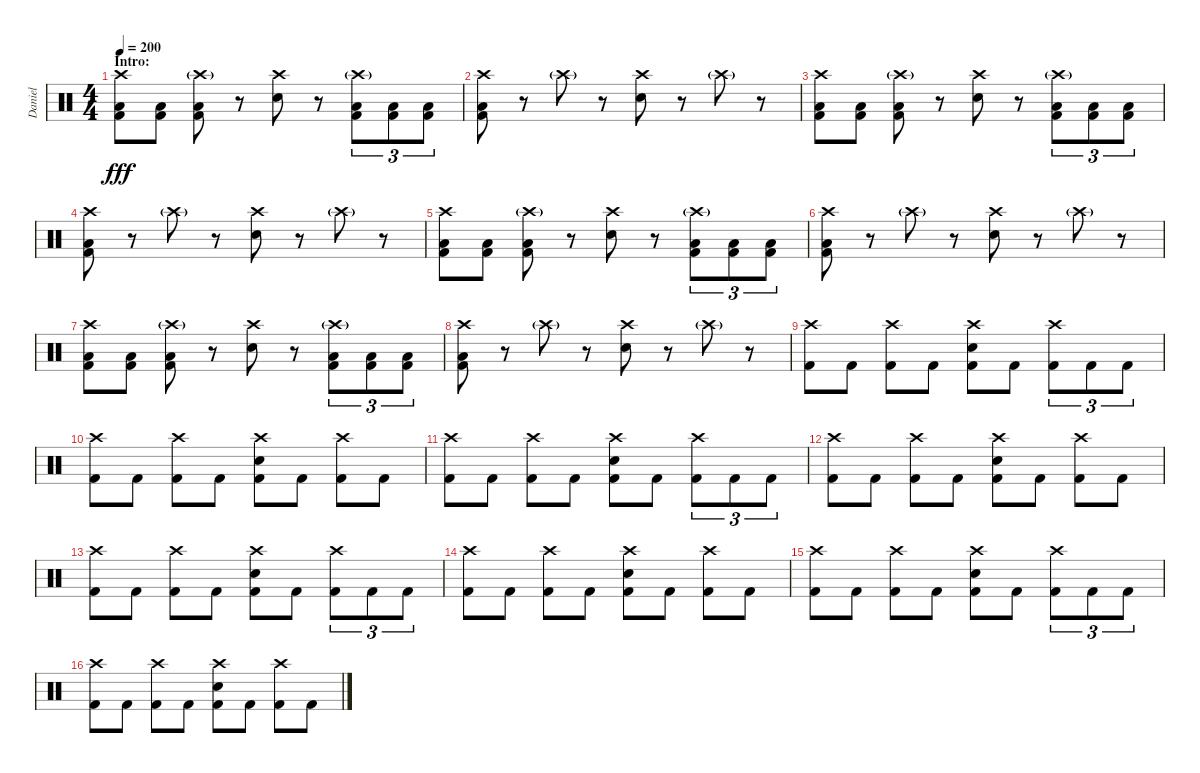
\track ("Daniel" "Daniel") {instrument percussion}
\staff {score}
\articulation defaults
\ts (4 4)
\section ("" "Intro:")
\tempo 200
\clef neutral
\ks c
("Crash high (hit)" "Low Floor Tom (hit)" "Kick (hit) 2").8{dy fff} ("Low Floor Tom (hit)" "Kick (hit) 2").8 ("Crash high (hit)"{g} "Low Floor Tom (hit)" "Kick (hit) 2").8 r.8 ("Crash high (hit)" "Electric Snare (hit)").8 r.8 ("Crash high (hit)"{g} "Low Floor Tom (hit)" "Kick (hit) 2").8{tu (3 2)} ("Low Floor Tom (hit)" "Kick (hit) 2").8{tu (3 2)} ("Low Floor Tom (hit)" "Kick (hit) 2").8{tu (3 2)} |
("Crash high (hit)" "Low Floor Tom (hit)" "Kick (hit) 2").8 r.8 "Crash high (hit)"{g}.8 r.8 ("Crash high (hit)" "Electric Snare (hit)").8 r.8 "Crash high (hit)"{g}.8 r.8 |
("Crash high (hit)" "Low Floor Tom (hit)" "Kick (hit) 2").8 ("Low Floor Tom (hit)" "Kick (hit) 2").8 ("Crash high (hit)"{g} "Low Floor Tom (hit)" "Kick (hit) 2").8 r.8 ("Crash high (hit)" "Electric Snare (hit)").8 r.8 ("Crash high (hit)"{g} "Low Floor Tom (hit)" "Kick (hit) 2").8{tu (3 2)} ("Low Floor Tom (hit)" "Kick (hit) 2").8{tu (3 2)} ("Low Floor Tom (hit)" "Kick (hit) 2").8{tu (3 2)} |
("Crash high (hit)" "Low Floor Tom (hit)" "Kick (hit) 2").8 r.8 "Crash high (hit)"{g}.8 r.8 ("Crash high (hit)" "Electric Snare (hit)").8 r.8 "Crash high (hit)"{g}.8 r.8 |
("Crash high (hit)" "Low Floor Tom (hit)" "Kick (hit) 2").8 ("Low Floor Tom (hit)" "Kick (hit) 2").8 ("Crash high (hit)"{g} "Low Floor Tom (hit)" "Kick (hit) 2").8 r.8 ("Crash high (hit)" "Electric Snare (hit)").8 r.8 ("Crash high (hit)"{g} "Low Floor Tom (hit)" "Kick (hit) 2").8{tu (3 2)} ("Low Floor Tom (hit)" "Kick (hit) 2").8{tu (3 2)} ("Low Floor Tom (hit)" "Kick (hit) 2").8{tu (3 2)} |
("Crash high (hit)" "Low Floor Tom (hit)" "Kick (hit) 2").8 r.8 "Crash high (hit)"{g}.8 r.8 ("Crash high (hit)" "Electric Snare (hit)").8 r.8 "Crash high (hit)"{g}.8 r.8 |
("Crash high (hit)" "Low Floor Tom (hit)" "Kick (hit) 2").8 ("Low Floor Tom (hit)" "Kick (hit) 2").8 ("Crash high (hit)"{g} "Low Floor Tom (hit)" "Kick (hit) 2").8 r.8 ("Crash high (hit)" "Electric Snare (hit)").8 r.8 ("Crash high (hit)"{g} "Low Floor Tom (hit)" "Kick (hit) 2").8{tu (3 2)} ("Low Floor Tom (hit)" "Kick (hit) 2").8{tu (3 2)} ("Low Floor Tom (hit)" "Kick (hit) 2").8{tu (3 2)} |
("Crash high (hit)" "Low Floor Tom (hit)" "Kick (hit) 2").8 r.8 "Crash high (hit)"{g}.8 r.8 ("Crash high (hit)" "Electric Snare (hit)").8 r.8 "Crash high (hit)"{g}.8 r.8 |
("Crash high (hit)" "Kick (hit) 2").8 "Kick (hit) 2".8 ("Crash high (hit)" "Kick (hit) 2").8 "Kick (hit) 2".8 ("Crash high (hit)" "Electric Snare (hit)" "Kick (hit) 2").8 "Kick (hit) 2".8 ("Crash high (hit)" "Kick (hit) 2").8{tu (3 2)} "Kick (hit) 2".8{tu (3 2)} "Kick (hit) 2".8{tu (3 2)} |
("Crash high (hit)" "Kick (hit) 2").8 "Kick (hit) 2".8 ("Crash high (hit)" "Kick (hit) 2").8 "Kick (hit) 2".8 ("Crash high (hit)" "Electric Snare (hit)" "Kick (hit) 2").8 "Kick (hit) 2".8 ("Crash high (hit)" "Kick (hit) 2").8 "Kick (hit) 2".8 |
("Crash high (hit)" "Kick (hit) 2").8 "Kick (hit) 2".8 ("Crash high (hit)" "Kick (hit) 2").8 "Kick (hit) 2".8 ("Crash high (hit)" "Electric Snare (hit)" "Kick (hit) 2").8 "Kick (hit) 2".8 ("Crash high (hit)" "Kick (hit) 2").8{tu (3 2)} "Kick (hit) 2".8{tu (3 2)} "Kick (hit) 2".8{tu (3 2)} |
("Crash high (hit)" "Kick (hit) 2").8 "Kick (hit) 2".8 ("Crash high (hit)" "Kick (hit) 2").8 "Kick (hit) 2".8 ("Crash high (hit)" "Electric Snare (hit)" "Kick (hit) 2").8 "Kick (hit) 2".8 ("Crash high (hit)" "Kick (hit) 2").8 "Kick (hit) 2".8 |
("Crash high (hit)" "Kick (hit) 2").8 "Kick (hit) 2".8 ("Crash high (hit)" "Kick (hit) 2").8 "Kick (hit) 2".8 ("Crash high (hit)" "Electric Snare (hit)" "Kick (hit) 2").8 "Kick (hit) 2".8 ("Crash high (hit)" "Kick (hit) 2").8{tu (3 2)} "Kick (hit) 2".8{tu (3 2)} "Kick (hit) 2".8{tu (3 2)} |
("Crash high (hit)" "Kick (hit) 2").8 "Kick (hit) 2".8 ("Crash high (hit)" "Kick (hit) 2").8 "Kick (hit) 2".8 ("Crash high (hit)" "Electric Snare (hit)" "Kick (hit) 2").8 "Kick (hit) 2".8 ("Crash high (hit)" "Kick (hit) 2").8 "Kick (hit) 2".8 |
("Crash high (hit)" "Kick (hit) 2").8 "Kick (hit) 2".8 ("Crash high (hit)" "Kick (hit) 2").8 "Kick (hit) 2".8 ("Crash high (hit)" "Electric Snare (hit)" "Kick (hit) 2").8 "Kick (hit) 2".8 ("Crash high (hit)" "Kick (hit) 2").8{tu (3 2)} "Kick (hit) 2".8{tu (3 2)} "Kick (hit) 2".8{tu (3 2)} |
("Crash high (hit)" "Kick (hit) 2").8 "Kick (hit) 2".8 ("Crash high (hit)" "Kick (hit) 2").8 "Kick (hit) 2".8 ("Crash high (hit)" "Electric Snare (hit)" "Kick (hit) 2").8 "Kick (hit) 2".8 ("Crash high (hit)" "Kick (hit) 2").8 "Kick (hit) 2".8
